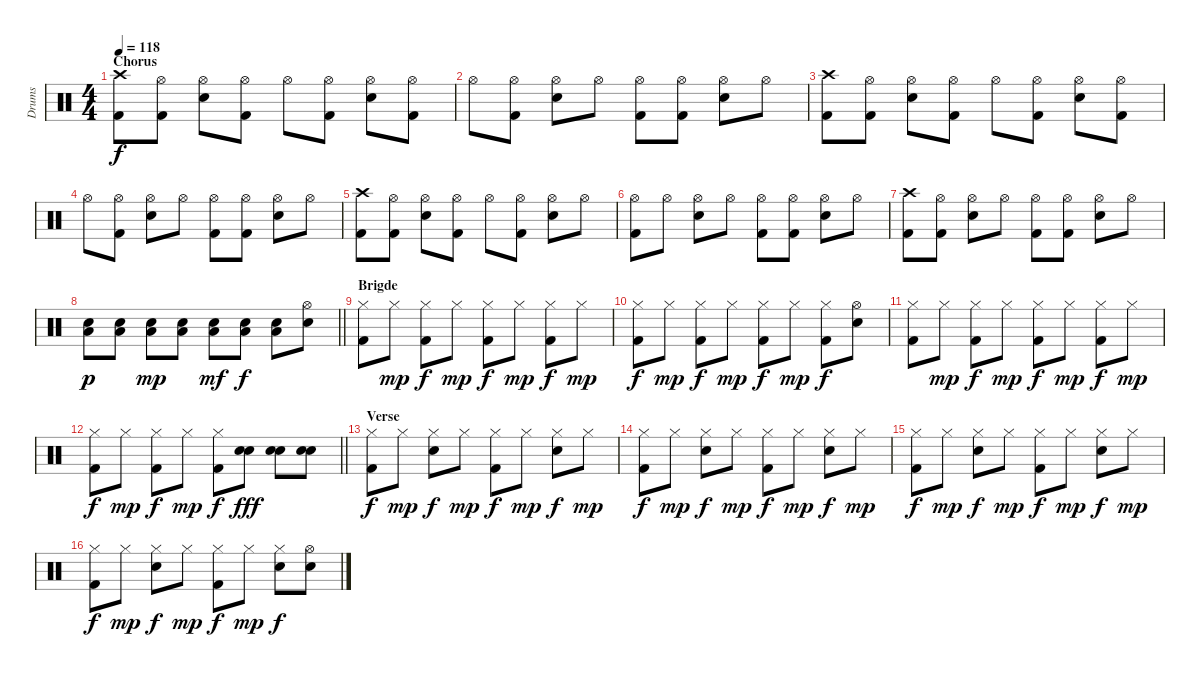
\track ("Drums" "Drums") {instrument percussion}
\staff {score}
\articulation defaults
\ts (4 4)
\section ("" "Chorus")
\tempo 118
\clef neutral
\ks c
("Crash high (hit)" "Kick (hit) 2").8{dy f} ("Hi-Hat (open)" "Kick (hit) 2").8 ("Hi-Hat (open)" "Snare (hit) 2").8 ("Hi-Hat (open)" "Kick (hit) 2").8 "Hi-Hat (open)".8 ("Hi-Hat (open)" "Kick (hit) 2").8 ("Hi-Hat (open)" "Snare (hit) 2").8 ("Hi-Hat (open)" "Kick (hit) 2").8 |
"Hi-Hat (open)".8 ("Hi-Hat (open)" "Kick (hit) 2").8 ("Hi-Hat (open)" "Snare (hit) 2").8 "Hi-Hat (open)".8 ("Hi-Hat (open)" "Kick (hit) 2").8 ("Hi-Hat (open)" "Kick (hit) 2").8 ("Hi-Hat (open)" "Snare (hit) 2").8 "Hi-Hat (open)".8 |
("Crash high (hit)" "Kick (hit) 2").8 ("Hi-Hat (open)" "Kick (hit) 2").8 ("Hi-Hat (open)" "Snare (hit) 2").8 ("Hi-Hat (open)" "Kick (hit) 2").8 "Hi-Hat (open)".8 ("Hi-Hat (open)" "Kick (hit) 2").8 ("Hi-Hat (open)" "Snare (hit) 2").8 ("Hi-Hat (open)" "Kick (hit) 2").8 |
"Hi-Hat (open)".8 ("Hi-Hat (open)" "Kick (hit) 2").8 ("Hi-Hat (open)" "Snare (hit) 2").8 "Hi-Hat (open)".8 ("Hi-Hat (open)" "Kick (hit) 2").8 ("Hi-Hat (open)" "Kick (hit) 2").8 ("Hi-Hat (open)" "Snare (hit) 2").8 "Hi-Hat (open)".8 |
("Crash high (hit)" "Kick (hit) 2").8 ("Hi-Hat (open)" "Kick (hit) 2").8 ("Hi-Hat (open)" "Snare (hit) 2").8 ("Hi-Hat (open)" "Kick (hit) 2").8 "Hi-Hat (open)".8 ("Hi-Hat (open)" "Kick (hit) 2").8 ("Hi-Hat (open)" "Snare (hit) 2").8 "Hi-Hat (open)".8 |
("Hi-Hat (open)" "Kick (hit) 2").8 "Hi-Hat (open)".8 ("Hi-Hat (open)" "Snare (hit) 2").8 "Hi-Hat (open)".8 ("Hi-Hat (open)" "Kick (hit) 2").8 ("Hi-Hat (open)" "Kick (hit) 2").8 ("Hi-Hat (open)" "Snare (hit) 2").8 "Hi-Hat (open)".8 |
("Crash high (hit)" "Kick (hit) 2").8 ("Hi-Hat (open)" "Kick (hit) 2").8 ("Hi-Hat (open)" "Snare (hit) 2").8 "Hi-Hat (open)".8 ("Hi-Hat (open)" "Kick (hit) 2").8 ("Hi-Hat (open)" "Kick (hit) 2").8 ("Hi-Hat (open)" "Snare (hit) 2").8 "Hi-Hat (open)".8 |
\barLineRight lightlight
("Snare (hit) 2" "Low Tom (hit)").8{dy p} ("Snare (hit) 2" "Low Tom (hit)").8 ("Snare (hit) 2" "Low Tom (hit)").8{dy mp} ("Snare (hit) 2" "Low Tom (hit)").8 ("Snare (hit) 2" "Low Tom (hit)").8{dy mf} ("Snare (hit) 2" "Low Tom (hit)").8{dy f} ("Snare (hit) 2" "Low Tom (hit)").8 ("Hi-Hat (open)" "Snare (hit) 2").8 |
\section ("" "Brigde")
("Hi-Hat (closed)" "Kick (hit) 2").8 "Hi-Hat (closed)".8{dy mp} ("Hi-Hat (closed)" "Kick (hit) 2").8{dy f} "Hi-Hat (closed)".8{dy mp} ("Hi-Hat (closed)" "Kick (hit) 2").8{dy f} "Hi-Hat (closed)".8{dy mp} ("Hi-Hat (closed)" "Kick (hit) 2").8{dy f} "Hi-Hat (closed)".8{dy mp} |
("Hi-Hat (closed)" "Kick (hit) 2").8{dy f} "Hi-Hat (closed)".8{dy mp} ("Hi-Hat (closed)" "Kick (hit) 2").8{dy f} "Hi-Hat (closed)".8{dy mp} ("Hi-Hat (closed)" "Kick (hit) 2").8{dy f} "Hi-Hat (closed)".8{dy mp} ("Hi-Hat (closed)" "Kick (hit) 2").8{dy f} ("Hi-Hat (open)" "Snare (hit) 2").8 |
("Hi-Hat (closed)" "Kick (hit) 2").8 "Hi-Hat (closed)".8{dy mp} ("Hi-Hat (closed)" "Kick (hit) 2").8{dy f} "Hi-Hat (closed)".8{dy mp} ("Hi-Hat (closed)" "Kick (hit) 2").8{dy f} "Hi-Hat (closed)".8{dy mp} ("Hi-Hat (closed)" "Kick (hit) 2").8{dy f} "Hi-Hat (closed)".8{dy mp} |
\barLineRight lightlight
("Hi-Hat (closed)" "Kick (hit) 2").8{dy f} "Hi-Hat (closed)".8{dy mp} ("Hi-Hat (closed)" "Kick (hit) 2").8{dy f} "Hi-Hat (closed)".8{dy mp} ("Hi-Hat (closed)" "Kick (hit) 2").8{dy f} ("Snare (hit) 2" "Hand Clap (hit)").8{dy fff} ("Snare (hit) 2" "Hand Clap (hit)").8 ("Snare (hit) 2" "Hand Clap (hit)").8 |
\section ("" "Verse")
("Hi-Hat (closed)" "Kick (hit) 2").8{dy f} "Hi-Hat (closed)".8{dy mp} ("Hi-Hat (closed)" "Snare (hit) 2").8{dy f} "Hi-Hat (closed)".8{dy mp} ("Hi-Hat (closed)" "Kick (hit) 2").8{dy f} "Hi-Hat (closed)".8{dy mp} ("Hi-Hat (closed)" "Snare (hit) 2").8{dy f} "Hi-Hat (closed)".8{dy mp} |
("Hi-Hat (closed)" "Kick (hit) 2").8{dy f} "Hi-Hat (closed)".8{dy mp} ("Hi-Hat (closed)" "Snare (hit) 2").8{dy f} "Hi-Hat (closed)".8{dy mp} ("Hi-Hat (closed)" "Kick (hit) 2").8{dy f} "Hi-Hat (closed)".8{dy mp} ("Hi-Hat (closed)" "Snare (hit) 2").8{dy f} "Hi-Hat (closed)".8{dy mp} |
("Hi-Hat (closed)" "Kick (hit) 2").8{dy f} "Hi-Hat (closed)".8{dy mp} ("Hi-Hat (closed)" "Snare (hit) 2").8{dy f} "Hi-Hat (closed)".8{dy mp} ("Hi-Hat (closed)" "Kick (hit) 2").8{dy f} "Hi-Hat (closed)".8{dy mp} ("Hi-Hat (closed)" "Snare (hit) 2").8{dy f} "Hi-Hat (closed)".8{dy mp} |
("Hi-Hat (closed)" "Kick (hit) 2").8{dy f} "Hi-Hat (closed)".8{dy mp} ("Hi-Hat (closed)" "Snare (hit) 2").8{dy f} "Hi-Hat (closed)".8{dy mp} ("Hi-Hat (closed)" "Kick (hit) 2").8{dy f} "Hi-Hat (closed)".8{dy mp} ("Hi-Hat (closed)" "Snare (hit) 2").8{dy f} ("Hi-Hat (open)" "Snare (hit) 2").8
